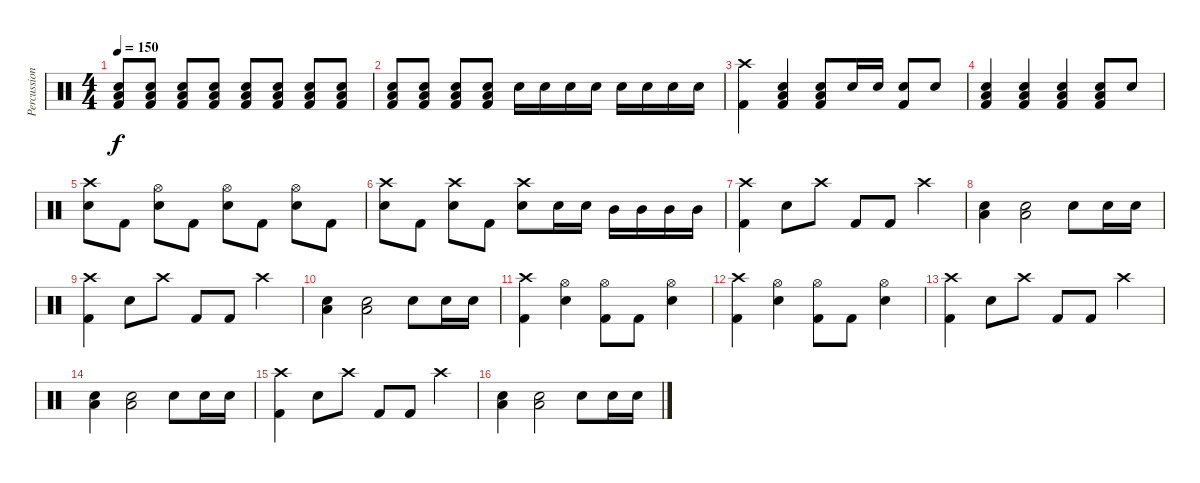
\track ("Percussion" "Percussion") {instrument percussion}
\staff {score}
\articulation defaults
\ts (4 4)
\tempo 150
\clef neutral
\ks c
("Low Floor Tom (hit)" "Snare (hit) 2" "Kick (hit) 2").8{dy f} ("Low Floor Tom (hit)" "Snare (hit) 2" "Kick (hit) 2").8 ("Low Floor Tom (hit)" "Snare (hit) 2" "Kick (hit) 2").8 ("Low Floor Tom (hit)" "Snare (hit) 2" "Kick (hit) 2").8 ("Low Floor Tom (hit)" "Snare (hit) 2" "Kick (hit) 2").8 ("Low Floor Tom (hit)" "Snare (hit) 2" "Kick (hit) 2").8 ("Low Floor Tom (hit)" "Snare (hit) 2" "Kick (hit) 2").8 ("Low Floor Tom (hit)" "Snare (hit) 2" "Kick (hit) 2").8 |
("Low Floor Tom (hit)" "Snare (hit) 2" "Kick (hit) 2").8 ("Low Floor Tom (hit)" "Snare (hit) 2" "Kick (hit) 2").8 ("Low Floor Tom (hit)" "Snare (hit) 2" "Kick (hit) 2").8 ("Low Floor Tom (hit)" "Snare (hit) 2" "Kick (hit) 2").8 "Snare (hit) 2".16 "Snare (hit) 2".16 "Snare (hit) 2".16 "Snare (hit) 2".16 "Snare (hit) 2".16 "Snare (hit) 2".16 "Snare (hit) 2".16 "Snare (hit) 2".16 |
("Crash high (hit)" "Kick (hit) 2").4 ("Low Floor Tom (hit)" "Snare (hit) 2" "Kick (hit) 2").4 ("Low Floor Tom (hit)" "Snare (hit) 2" "Kick (hit) 2").8 "Snare (hit) 2".16 "Snare (hit) 2".16 ("Snare (hit) 2" "Kick (hit) 2").8 "Snare (hit) 2".8 |
("Low Floor Tom (hit)" "Snare (hit) 2" "Kick (hit) 2").4 ("Low Floor Tom (hit)" "Snare (hit) 2" "Kick (hit) 2").4 ("Low Floor Tom (hit)" "Snare (hit) 2" "Kick (hit) 2").4 ("Low Floor Tom (hit)" "Snare (hit) 2" "Kick (hit) 2").8 "Snare (hit) 2".8 |
("Crash high (hit)" "Snare (hit) 2").8 "Kick (hit) 2".8 ("Hi-Hat (open)" "Snare (hit) 2").8 "Kick (hit) 2".8 ("Hi-Hat (open)" "Snare (hit) 2").8 "Kick (hit) 2".8 ("Hi-Hat (open)" "Snare (hit) 2").8 "Kick (hit) 2".8 |
("Crash high (hit)" "Snare (hit) 2").8 "Kick (hit) 2".8 ("Crash high (hit)" "Snare (hit) 2").8 "Kick (hit) 2".8 ("Crash high (hit)" "Snare (hit) 2").8 "Snare (hit) 2".16 "Snare (hit) 2".16 "Mid Tom (hit)".16 "Mid Tom (hit)".16 "Mid Tom (hit)".16 "Mid Tom (hit)".16 |
("Crash high (hit)" "Kick (hit) 2").4 "Snare (hit) 2".8 "Crash high (hit)".8 "Kick (hit) 2".8 "Kick (hit) 2".8 "Crash high (hit)".4 |
("Low Floor Tom (hit)" "Snare (hit) 2").4 ("Low Floor Tom (hit)" "Snare (hit) 2").2 "Snare (hit) 2".8 "Snare (hit) 2".16 "Snare (hit) 2".16 |
("Crash high (hit)" "Kick (hit) 2").4 "Snare (hit) 2".8 "Crash high (hit)".8 "Kick (hit) 2".8 "Kick (hit) 2".8 "Crash high (hit)".4 |
("Low Floor Tom (hit)" "Snare (hit) 2").4 ("Low Floor Tom (hit)" "Snare (hit) 2").2 "Snare (hit) 2".8 "Snare (hit) 2".16 "Snare (hit) 2".16 |
("Crash high (hit)" "Kick (hit) 2").4 ("Hi-Hat (open)" "Snare (hit) 2").4 ("Hi-Hat (open)" "Kick (hit) 2").8 "Kick (hit) 2".8 ("Hi-Hat (open)" "Snare (hit) 2").4 |
("Crash high (hit)" "Kick (hit) 2").4 ("Hi-Hat (open)" "Snare (hit) 2").4 ("Hi-Hat (open)" "Kick (hit) 2").8 "Kick (hit) 2".8 ("Hi-Hat (open)" "Snare (hit) 2").4 |
("Crash high (hit)" "Kick (hit) 2").4 "Snare (hit) 2".8 "Crash high (hit)".8 "Kick (hit) 2".8 "Kick (hit) 2".8 "Crash high (hit)".4 |
("Low Floor Tom (hit)" "Snare (hit) 2").4 ("Low Floor Tom (hit)" "Snare (hit) 2").2 "Snare (hit) 2".8 "Snare (hit) 2".16 "Snare (hit) 2".16 |
("Crash high (hit)" "Kick (hit) 2").4 "Snare (hit) 2".8 "Crash high (hit)".8 "Kick (hit) 2".8 "Kick (hit) 2".8 "Crash high (hit)".4 |
("Low Floor Tom (hit)" "Snare (hit) 2").4 ("Low Floor Tom (hit)" "Snare (hit) 2").2 "Snare (hit) 2".8 "Snare (hit) 2".16 "Snare (hit) 2".16
